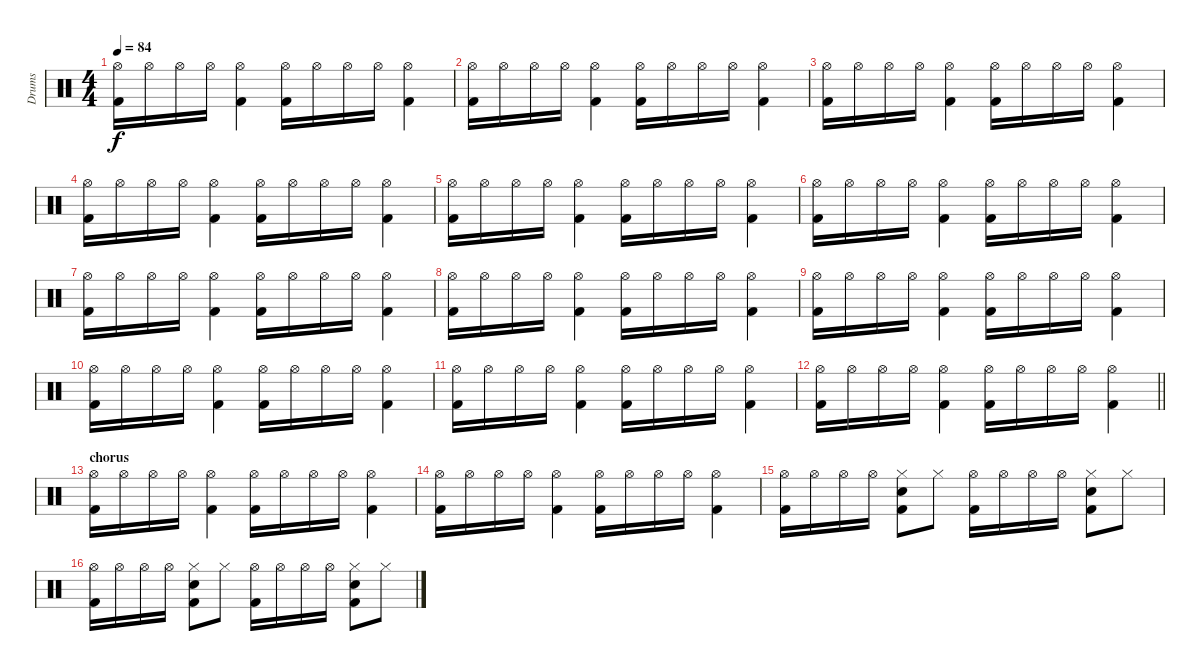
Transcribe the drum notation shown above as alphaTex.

\track ("Drums" "Drums") {instrument percussion}
\staff {score}
\articulation defaults
\ts (4 4)
\tempo 84
\clef neutral
\ks c
("Hi-Hat (open)" "Kick (hit) 2").16{dy f} "Hi-Hat (open)".16 "Hi-Hat (open)".16 "Hi-Hat (open)".16 ("Hi-Hat (open)" "Kick (hit) 2").4 ("Hi-Hat (open)" "Kick (hit) 2").16 "Hi-Hat (open)".16 "Hi-Hat (open)".16 "Hi-Hat (open)".16 ("Hi-Hat (open)" "Kick (hit) 2").4 |
("Hi-Hat (open)" "Kick (hit) 2").16 "Hi-Hat (open)".16 "Hi-Hat (open)".16 "Hi-Hat (open)".16 ("Hi-Hat (open)" "Kick (hit) 2").4 ("Hi-Hat (open)" "Kick (hit) 2").16 "Hi-Hat (open)".16 "Hi-Hat (open)".16 "Hi-Hat (open)".16 ("Hi-Hat (open)" "Kick (hit) 2").4 |
("Hi-Hat (open)" "Kick (hit) 2").16 "Hi-Hat (open)".16 "Hi-Hat (open)".16 "Hi-Hat (open)".16 ("Hi-Hat (open)" "Kick (hit) 2").4 ("Hi-Hat (open)" "Kick (hit) 2").16 "Hi-Hat (open)".16 "Hi-Hat (open)".16 "Hi-Hat (open)".16 ("Hi-Hat (open)" "Kick (hit) 2").4 |
("Hi-Hat (open)" "Kick (hit) 2").16 "Hi-Hat (open)".16 "Hi-Hat (open)".16 "Hi-Hat (open)".16 ("Hi-Hat (open)" "Kick (hit) 2").4 ("Hi-Hat (open)" "Kick (hit) 2").16 "Hi-Hat (open)".16 "Hi-Hat (open)".16 "Hi-Hat (open)".16 ("Hi-Hat (open)" "Kick (hit) 2").4 |
("Hi-Hat (open)" "Kick (hit) 2").16 "Hi-Hat (open)".16 "Hi-Hat (open)".16 "Hi-Hat (open)".16 ("Hi-Hat (open)" "Kick (hit) 2").4 ("Hi-Hat (open)" "Kick (hit) 2").16 "Hi-Hat (open)".16 "Hi-Hat (open)".16 "Hi-Hat (open)".16 ("Hi-Hat (open)" "Kick (hit) 2").4 |
("Hi-Hat (open)" "Kick (hit) 2").16 "Hi-Hat (open)".16 "Hi-Hat (open)".16 "Hi-Hat (open)".16 ("Hi-Hat (open)" "Kick (hit) 2").4 ("Hi-Hat (open)" "Kick (hit) 2").16 "Hi-Hat (open)".16 "Hi-Hat (open)".16 "Hi-Hat (open)".16 ("Hi-Hat (open)" "Kick (hit) 2").4 |
("Hi-Hat (open)" "Kick (hit) 2").16 "Hi-Hat (open)".16 "Hi-Hat (open)".16 "Hi-Hat (open)".16 ("Hi-Hat (open)" "Kick (hit) 2").4 ("Hi-Hat (open)" "Kick (hit) 2").16 "Hi-Hat (open)".16 "Hi-Hat (open)".16 "Hi-Hat (open)".16 ("Hi-Hat (open)" "Kick (hit) 2").4 |
("Hi-Hat (open)" "Kick (hit) 2").16 "Hi-Hat (open)".16 "Hi-Hat (open)".16 "Hi-Hat (open)".16 ("Hi-Hat (open)" "Kick (hit) 2").4 ("Hi-Hat (open)" "Kick (hit) 2").16 "Hi-Hat (open)".16 "Hi-Hat (open)".16 "Hi-Hat (open)".16 ("Hi-Hat (open)" "Kick (hit) 2").4 |
("Hi-Hat (open)" "Kick (hit) 2").16 "Hi-Hat (open)".16 "Hi-Hat (open)".16 "Hi-Hat (open)".16 ("Hi-Hat (open)" "Kick (hit) 2").4 ("Hi-Hat (open)" "Kick (hit) 2").16 "Hi-Hat (open)".16 "Hi-Hat (open)".16 "Hi-Hat (open)".16 ("Hi-Hat (open)" "Kick (hit) 2").4 |
("Hi-Hat (open)" "Kick (hit) 2").16 "Hi-Hat (open)".16 "Hi-Hat (open)".16 "Hi-Hat (open)".16 ("Hi-Hat (open)" "Kick (hit) 2").4 ("Hi-Hat (open)" "Kick (hit) 2").16 "Hi-Hat (open)".16 "Hi-Hat (open)".16 "Hi-Hat (open)".16 ("Hi-Hat (open)" "Kick (hit) 2").4 |
("Hi-Hat (open)" "Kick (hit) 2").16 "Hi-Hat (open)".16 "Hi-Hat (open)".16 "Hi-Hat (open)".16 ("Hi-Hat (open)" "Kick (hit) 2").4 ("Hi-Hat (open)" "Kick (hit) 2").16 "Hi-Hat (open)".16 "Hi-Hat (open)".16 "Hi-Hat (open)".16 ("Hi-Hat (open)" "Kick (hit) 2").4 |
\barLineRight lightlight
("Hi-Hat (open)" "Kick (hit) 2").16 "Hi-Hat (open)".16 "Hi-Hat (open)".16 "Hi-Hat (open)".16 ("Hi-Hat (open)" "Kick (hit) 2").4 ("Hi-Hat (open)" "Kick (hit) 2").16 "Hi-Hat (open)".16 "Hi-Hat (open)".16 "Hi-Hat (open)".16 ("Hi-Hat (open)" "Kick (hit) 2").4 |
\section ("" "chorus")
("Hi-Hat (open)" "Kick (hit) 2").16 "Hi-Hat (open)".16 "Hi-Hat (open)".16 "Hi-Hat (open)".16 ("Hi-Hat (open)" "Kick (hit) 2").4 ("Hi-Hat (open)" "Kick (hit) 2").16 "Hi-Hat (open)".16 "Hi-Hat (open)".16 "Hi-Hat (open)".16 ("Hi-Hat (open)" "Kick (hit) 2").4 |
("Hi-Hat (open)" "Kick (hit) 2").16 "Hi-Hat (open)".16 "Hi-Hat (open)".16 "Hi-Hat (open)".16 ("Hi-Hat (open)" "Kick (hit) 2").4 ("Hi-Hat (open)" "Kick (hit) 2").16 "Hi-Hat (open)".16 "Hi-Hat (open)".16 "Hi-Hat (open)".16 ("Hi-Hat (open)" "Kick (hit) 2").4 |
("Hi-Hat (open)" "Kick (hit) 2").16 "Hi-Hat (open)".16 "Hi-Hat (open)".16 "Hi-Hat (open)".16 ("Hi-Hat (closed)" "Snare (hit) 2" "Kick (hit) 2").8 "Hi-Hat (closed)".8 ("Hi-Hat (open)" "Kick (hit) 2").16 "Hi-Hat (open)".16 "Hi-Hat (open)".16 "Hi-Hat (open)".16 ("Hi-Hat (closed)" "Snare (hit) 2" "Kick (hit) 2").8 "Hi-Hat (closed)".8 |
("Hi-Hat (open)" "Kick (hit) 2").16 "Hi-Hat (open)".16 "Hi-Hat (open)".16 "Hi-Hat (open)".16 ("Hi-Hat (closed)" "Snare (hit) 2" "Kick (hit) 2").8 "Hi-Hat (closed)".8 ("Hi-Hat (open)" "Kick (hit) 2").16 "Hi-Hat (open)".16 "Hi-Hat (open)".16 "Hi-Hat (open)".16 ("Hi-Hat (closed)" "Snare (hit) 2" "Kick (hit) 2").8 "Hi-Hat (closed)".8
